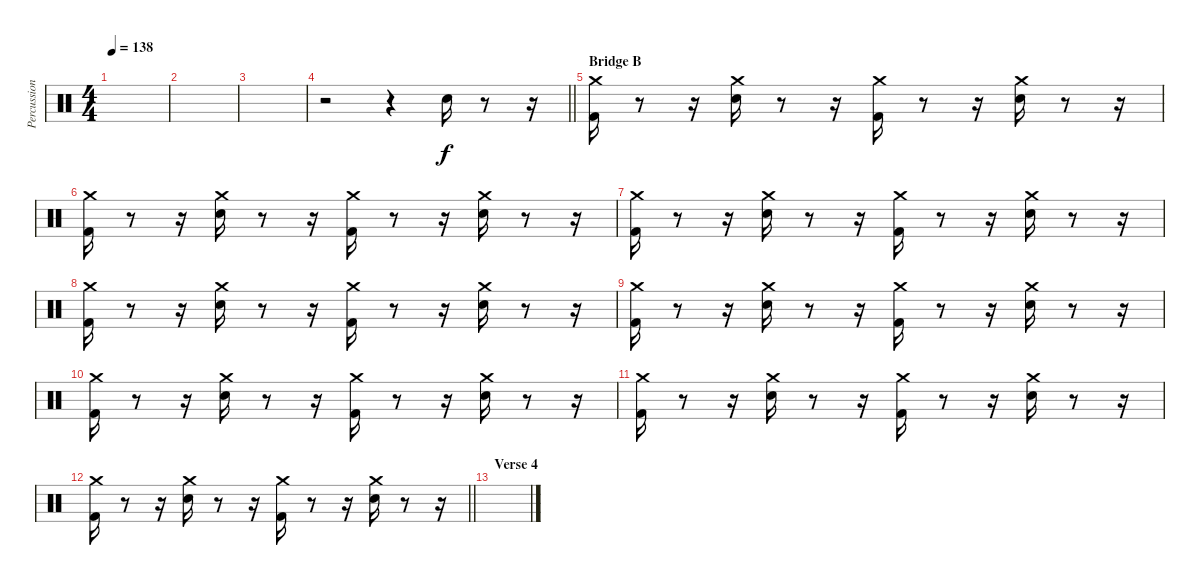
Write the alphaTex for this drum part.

\track ("Percussion" "Percussion") {instrument percussion}
\staff {score}
\articulation defaults
\ts (4 4)
\tempo 138
\clef neutral
\ks c
|
|
|
\barLineRight lightlight
r.2 r.4 "Electric Snare (hit)".16 r.8 r.16 |
\section ("" "Bridge B")
("Kick (hit) 2" "Crash medium (hit)").16 r.8 r.16 ("Snare (hit) 2" "Crash medium (hit)").16 r.8 r.16 ("Kick (hit) 2" "Crash medium (hit)").16 r.8 r.16 ("Snare (hit) 2" "Crash medium (hit)").16 r.8 r.16 |
("Kick (hit) 2" "Crash medium (hit)").16 r.8 r.16 ("Snare (hit) 2" "Crash medium (hit)").16 r.8 r.16 ("Kick (hit) 2" "Crash medium (hit)").16 r.8 r.16 ("Snare (hit) 2" "Crash medium (hit)").16 r.8 r.16 |
("Kick (hit) 2" "Crash medium (hit)").16 r.8 r.16 ("Snare (hit) 2" "Crash medium (hit)").16 r.8 r.16 ("Kick (hit) 2" "Crash medium (hit)").16 r.8 r.16 ("Snare (hit) 2" "Crash medium (hit)").16 r.8 r.16 |
("Kick (hit) 2" "Crash medium (hit)").16 r.8 r.16 ("Snare (hit) 2" "Crash medium (hit)").16 r.8 r.16 ("Kick (hit) 2" "Crash medium (hit)").16 r.8 r.16 ("Snare (hit) 2" "Crash medium (hit)").16 r.8 r.16 |
("Kick (hit) 2" "Crash medium (hit)").16 r.8 r.16 ("Snare (hit) 2" "Crash medium (hit)").16 r.8 r.16 ("Kick (hit) 2" "Crash medium (hit)").16 r.8 r.16 ("Snare (hit) 2" "Crash medium (hit)").16 r.8 r.16 |
("Kick (hit) 2" "Crash medium (hit)").16 r.8 r.16 ("Snare (hit) 2" "Crash medium (hit)").16 r.8 r.16 ("Kick (hit) 2" "Crash medium (hit)").16 r.8 r.16 ("Snare (hit) 2" "Crash medium (hit)").16 r.8 r.16 |
("Kick (hit) 2" "Crash medium (hit)").16 r.8 r.16 ("Snare (hit) 2" "Crash medium (hit)").16 r.8 r.16 ("Kick (hit) 2" "Crash medium (hit)").16 r.8 r.16 ("Snare (hit) 2" "Crash medium (hit)").16 r.8 r.16 |
\barLineRight lightlight
("Kick (hit) 2" "Crash medium (hit)").16 r.8 r.16 ("Snare (hit) 2" "Crash medium (hit)").16 r.8 r.16 ("Kick (hit) 2" "Crash medium (hit)").16 r.8 r.16 ("Snare (hit) 2" "Crash medium (hit)").16 r.8 r.16 |
\section ("" "Verse 4")
